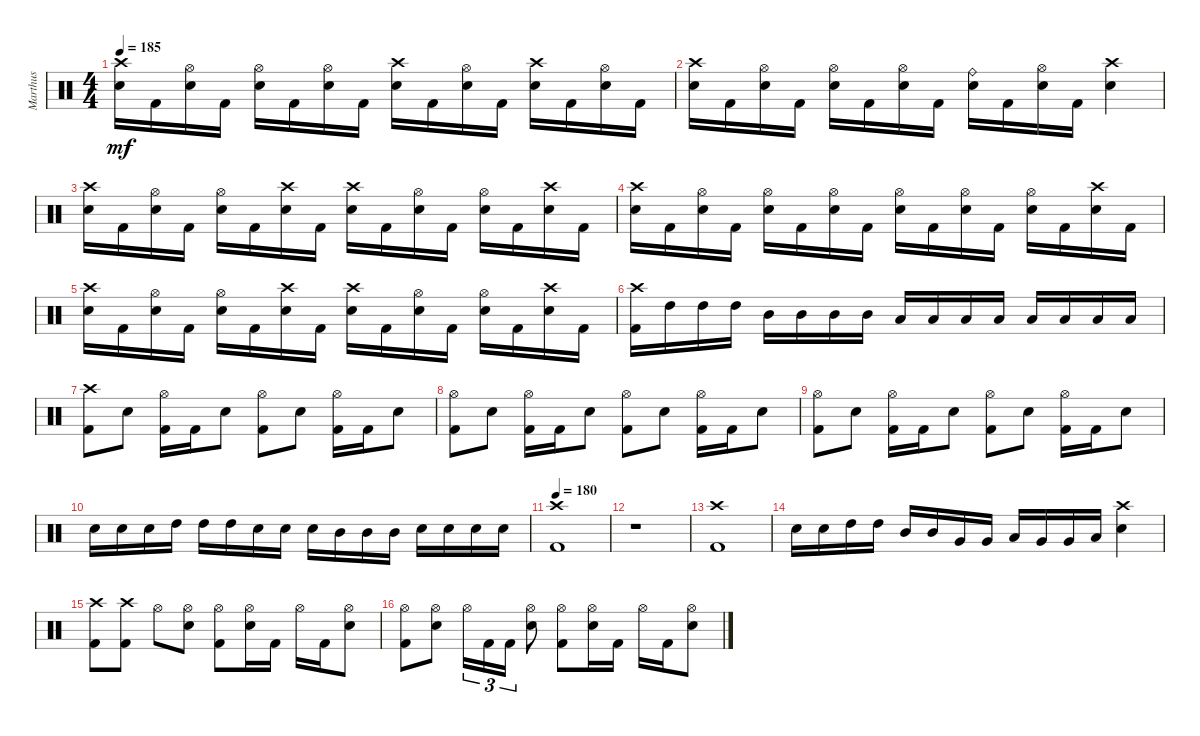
\track ("Marthus" "Marthus") {instrument percussion}
\staff {score}
\articulation defaults
\ts (4 4)
\tempo 185
\clef neutral
\ks c
("Crash high (hit)" "Electric Snare (hit)").16{dy mf} "Kick (hit) 2".16 ("Hi-Hat (open)" "Electric Snare (hit)").16 "Kick (hit) 2".16 ("Hi-Hat (open)" "Electric Snare (hit)").16 "Kick (hit) 2".16 ("Hi-Hat (open)" "Electric Snare (hit)").16 "Kick (hit) 2".16 ("Crash high (hit)" "Electric Snare (hit)").16 "Kick (hit) 2".16 ("Hi-Hat (open)" "Electric Snare (hit)").16 "Kick (hit) 2".16 ("Crash high (hit)" "Electric Snare (hit)").16 "Kick (hit) 2".16 ("Hi-Hat (open)" "Electric Snare (hit)").16 "Kick (hit) 2".16 |
("Crash high (hit)" "Electric Snare (hit)").16 "Kick (hit) 2".16 ("Hi-Hat (open)" "Electric Snare (hit)").16 "Kick (hit) 2".16 ("Hi-Hat (open)" "Electric Snare (hit)").16 "Kick (hit) 2".16 ("Hi-Hat (open)" "Electric Snare (hit)").16 "Kick (hit) 2".16 ("Ride (bell)" "Electric Snare (hit)").16 "Kick (hit) 2".16 ("Hi-Hat (open)" "Electric Snare (hit)").16 "Kick (hit) 2".16 ("Crash high (hit)" "Electric Snare (hit)").4 |
("Crash high (hit)" "Electric Snare (hit)").16 "Kick (hit) 2".16 ("Hi-Hat (open)" "Electric Snare (hit)").16 "Kick (hit) 2".16 ("Hi-Hat (open)" "Electric Snare (hit)").16 "Kick (hit) 2".16 ("Crash high (hit)" "Electric Snare (hit)").16 "Kick (hit) 2".16 ("Crash high (hit)" "Electric Snare (hit)").16 "Kick (hit) 2".16 ("Hi-Hat (open)" "Electric Snare (hit)").16 "Kick (hit) 2".16 ("Hi-Hat (open)" "Electric Snare (hit)").16 "Kick (hit) 2".16 ("Crash high (hit)" "Electric Snare (hit)").16 "Kick (hit) 2".16 |
("Crash high (hit)" "Electric Snare (hit)").16 "Kick (hit) 2".16 ("Hi-Hat (open)" "Electric Snare (hit)").16 "Kick (hit) 2".16 ("Hi-Hat (open)" "Electric Snare (hit)").16 "Kick (hit) 2".16 ("Hi-Hat (open)" "Electric Snare (hit)").16 "Kick (hit) 2".16 ("Hi-Hat (open)" "Electric Snare (hit)").16 "Kick (hit) 2".16 ("Hi-Hat (open)" "Electric Snare (hit)").16 "Kick (hit) 2".16 ("Hi-Hat (open)" "Electric Snare (hit)").16 "Kick (hit) 2".16 ("Crash high (hit)" "Electric Snare (hit)").16 "Kick (hit) 2".16 |
("Crash high (hit)" "Electric Snare (hit)").16 "Kick (hit) 2".16 ("Hi-Hat (open)" "Electric Snare (hit)").16 "Kick (hit) 2".16 ("Hi-Hat (open)" "Electric Snare (hit)").16 "Kick (hit) 2".16 ("Crash high (hit)" "Electric Snare (hit)").16 "Kick (hit) 2".16 ("Crash high (hit)" "Electric Snare (hit)").16 "Kick (hit) 2".16 ("Hi-Hat (open)" "Electric Snare (hit)").16 "Kick (hit) 2".16 ("Hi-Hat (open)" "Electric Snare (hit)").16 "Kick (hit) 2".16 ("Crash high (hit)" "Electric Snare (hit)").16 "Kick (hit) 2".16 |
("Crash high (hit)" "Kick (hit) 2").16 "High Tom (hit)".16 "High Tom (hit)".16 "High Tom (hit)".16 "Mid Tom (hit)".16 "Mid Tom (hit)".16 "Mid Tom (hit)".16 "Mid Tom (hit)".16 "Low Tom (hit)".16 "Low Tom (hit)".16 "Low Tom (hit)".16 "Low Tom (hit)".16 "Low Floor Tom (hit)".16 "Low Floor Tom (hit)".16 "Low Floor Tom (hit)".16 "Low Floor Tom (hit)".16 |
("Crash high (hit)" "Kick (hit) 2").8 "Electric Snare (hit)".8 ("Hi-Hat (open)" "Kick (hit) 2").16 "Kick (hit) 2".16 "Electric Snare (hit)".8 ("Hi-Hat (open)" "Kick (hit) 2").8 "Electric Snare (hit)".8 ("Hi-Hat (open)" "Kick (hit) 2").16 "Kick (hit) 2".16 "Electric Snare (hit)".8 |
("Hi-Hat (open)" "Kick (hit) 2").8 "Electric Snare (hit)".8 ("Hi-Hat (open)" "Kick (hit) 2").16 "Kick (hit) 2".16 "Electric Snare (hit)".8 ("Hi-Hat (open)" "Kick (hit) 2").8 "Electric Snare (hit)".8 ("Hi-Hat (open)" "Kick (hit) 2").16 "Kick (hit) 2".16 "Electric Snare (hit)".8 |
("Hi-Hat (open)" "Kick (hit) 2").8 "Electric Snare (hit)".8 ("Hi-Hat (open)" "Kick (hit) 2").16 "Kick (hit) 2".16 "Electric Snare (hit)".8 ("Hi-Hat (open)" "Kick (hit) 2").8 "Electric Snare (hit)".8 ("Hi-Hat (open)" "Kick (hit) 2").16 "Kick (hit) 2".16 "Electric Snare (hit)".8 |
"Electric Snare (hit)".16 "Electric Snare (hit)".16 "Electric Snare (hit)".16 "High Tom (hit)".16 "High Tom (hit)".16 "High Tom (hit)".16 "Electric Snare (hit)".16 "Electric Snare (hit)".16 "Electric Snare (hit)".16 "Mid Tom (hit)".16 "Mid Tom (hit)".16 "Mid Tom (hit)".16 "Electric Snare (hit)".16 "Electric Snare (hit)".16 "Electric Snare (hit)".16 "Electric Snare (hit)".16 |
\tempo 180
("Crash high (hit)" "Kick (hit) 2").1 |
r.1 |
("Crash high (hit)" "Kick (hit) 2").1 |
"Electric Snare (hit)".16 "Electric Snare (hit)".16 "High Tom (hit)".16 "High Tom (hit)".16 "Mid Tom (hit)".16 "Mid Tom (hit)".16 "Very Low Tom (hit)".16 "Very Low Tom (hit)".16 "Low Tom (hit)".16 "Very Low Tom (hit)".16 "Very Low Tom (hit)".16 "Low Tom (hit)".16 ("Crash high (hit)" "Electric Snare (hit)").4 |
("Crash high (hit)" "Kick (hit) 2").8 ("Crash high (hit)" "Kick (hit) 2").8 "Hi-Hat (open)".8 ("Hi-Hat (open)" "Electric Snare (hit)").8 ("Hi-Hat (open)" "Kick (hit) 2").8 ("Hi-Hat (open)" "Electric Snare (hit)").16 "Kick (hit) 2".16 "Hi-Hat (open)".16 "Kick (hit) 2".16 ("Hi-Hat (open)" "Electric Snare (hit)").8 |
("Hi-Hat (open)" "Kick (hit) 2").8 ("Hi-Hat (open)" "Electric Snare (hit)").8 "Hi-Hat (open)".16{tu (3 2)} "Kick (hit) 2".16{tu (3 2)} "Kick (hit) 2".16{tu (3 2)} ("Hi-Hat (open)" "Electric Snare (hit)").8 ("Hi-Hat (open)" "Kick (hit) 2").8 ("Hi-Hat (open)" "Electric Snare (hit)").16 "Kick (hit) 2".16 "Hi-Hat (open)".16 "Kick (hit) 2".16 ("Hi-Hat (open)" "Electric Snare (hit)").8
